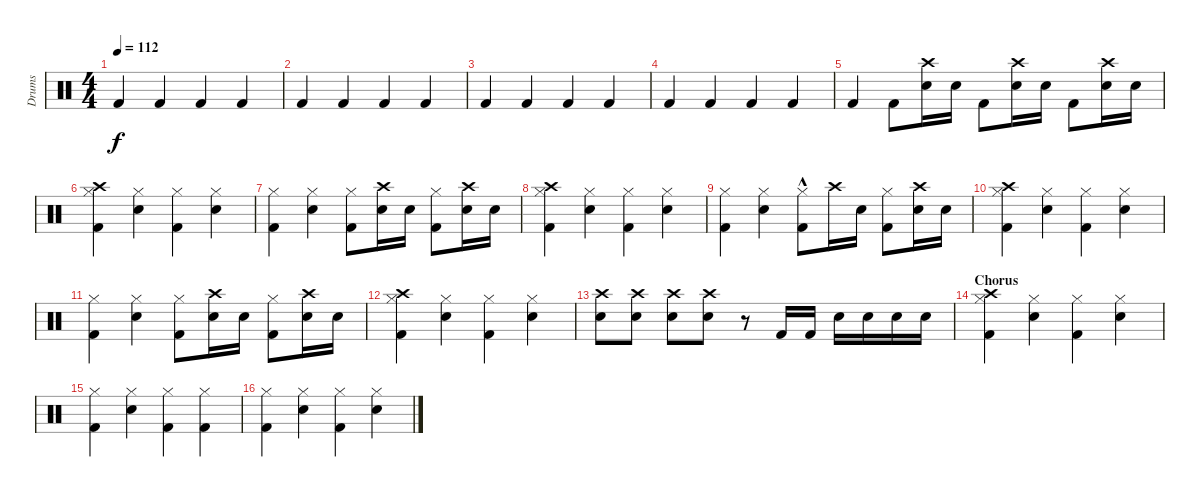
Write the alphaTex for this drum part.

\track ("Drums" "Drums") {instrument percussion}
\staff {score}
\articulation defaults
\ts (4 4)
\tempo 112
\clef neutral
\ks c "Kick (hit) 2".4{dy f} "Kick (hit) 2".4 "Kick (hit) 2".4 "Kick (hit) 2".4
|
"Kick (hit) 2".4 "Kick (hit) 2".4 "Kick (hit) 2".4 "Kick (hit) 2".4 |
"Kick (hit) 2".4 "Kick (hit) 2".4 "Kick (hit) 2".4 "Kick (hit) 2".4 |
"Kick (hit) 2".4 "Kick (hit) 2".4 "Kick (hit) 2".4 "Kick (hit) 2".4 |
"Kick (hit) 2".4 "Kick (hit) 2".8 ("Crash high (hit)" "Electric Snare (hit)").16 "Electric Snare (hit)".16 "Kick (hit) 2".8 ("Crash high (hit)" "Electric Snare (hit)").16 "Electric Snare (hit)".16 "Kick (hit) 2".8 ("Crash high (hit)" "Electric Snare (hit)").16 "Electric Snare (hit)".16 |
("Kick (hit) 2" "Crash high (hit)" "Hi-Hat (closed)").4 ("Hi-Hat (closed)" "Electric Snare (hit)").4 ("Kick (hit) 2" "Hi-Hat (closed)").4 ("Hi-Hat (closed)" "Electric Snare (hit)").4 |
("Kick (hit) 2" "Hi-Hat (closed)").4 ("Hi-Hat (closed)" "Electric Snare (hit)").4 ("Kick (hit) 2" "Hi-Hat (closed)").8 ("Snare (hit) 2" "Crash high (hit)").16 "Snare (hit) 2".16 ("Kick (hit) 2" "Hi-Hat (closed)").8 ("Snare (hit) 2" "Crash high (hit)").16 "Snare (hit) 2".16 |
("Kick (hit) 2" "Hi-Hat (closed)" "Crash high (hit)").4 ("Hi-Hat (closed)" "Electric Snare (hit)").4 ("Kick (hit) 2" "Hi-Hat (closed)").4 ("Hi-Hat (closed)" "Electric Snare (hit)").4 |
("Kick (hit) 2" "Hi-Hat (closed)").4 ("Hi-Hat (closed)" "Electric Snare (hit)").4 ("Kick (hit) 2" "Hi-Hat (closed)"{hac}).8 "Crash high (hit)".16 "Snare (hit) 2".16 ("Kick (hit) 2" "Hi-Hat (closed)").8 ("Snare (hit) 2" "Crash high (hit)").16 "Snare (hit) 2".16 |
("Crash high (hit)" "Hi-Hat (closed)" "Kick (hit) 2").4 ("Hi-Hat (closed)" "Electric Snare (hit)").4 ("Hi-Hat (closed)" "Kick (hit) 2").4 ("Hi-Hat (closed)" "Electric Snare (hit)").4 |
("Kick (hit) 2" "Hi-Hat (closed)").4 ("Hi-Hat (closed)" "Electric Snare (hit)").4 ("Kick (hit) 2" "Hi-Hat (closed)").8 ("Snare (hit) 2" "Crash high (hit)").16 "Snare (hit) 2".16 ("Hi-Hat (closed)" "Kick (hit) 2").8 ("Snare (hit) 2" "Crash high (hit)").16 "Snare (hit) 2".16 |
("Kick (hit) 2" "Hi-Hat (closed)" "Crash high (hit)").4 ("Hi-Hat (closed)" "Electric Snare (hit)").4 ("Kick (hit) 2" "Hi-Hat (closed)").4 ("Hi-Hat (closed)" "Electric Snare (hit)").4 |
("Crash high (hit)" "Electric Snare (hit)").8 ("Crash high (hit)" "Electric Snare (hit)").8 ("Crash high (hit)" "Electric Snare (hit)").8 ("Crash high (hit)" "Electric Snare (hit)").8 r.8 "Kick (hit) 2".16 "Kick (hit) 2".16 "Electric Snare (hit)".16 "Electric Snare (hit)".16 "Electric Snare (hit)".16 "Electric Snare (hit)".16 |
\section ("" "Chorus")
("Kick (hit) 2" "Hi-Hat (closed)" "Crash high (hit)").4 ("Hi-Hat (closed)" "Electric Snare (hit)").4 ("Kick (hit) 2" "Hi-Hat (closed)").4 ("Hi-Hat (closed)" "Electric Snare (hit)").4 |
("Kick (hit) 2" "Hi-Hat (closed)").4 ("Hi-Hat (closed)" "Electric Snare (hit)").4 ("Kick (hit) 2" "Hi-Hat (closed)").4 ("Kick (hit) 2" "Hi-Hat (closed)").4 |
("Kick (hit) 2" "Hi-Hat (closed)").4 ("Hi-Hat (closed)" "Electric Snare (hit)").4 ("Kick (hit) 2" "Hi-Hat (closed)").4 ("Hi-Hat (closed)" "Electric Snare (hit)").4
